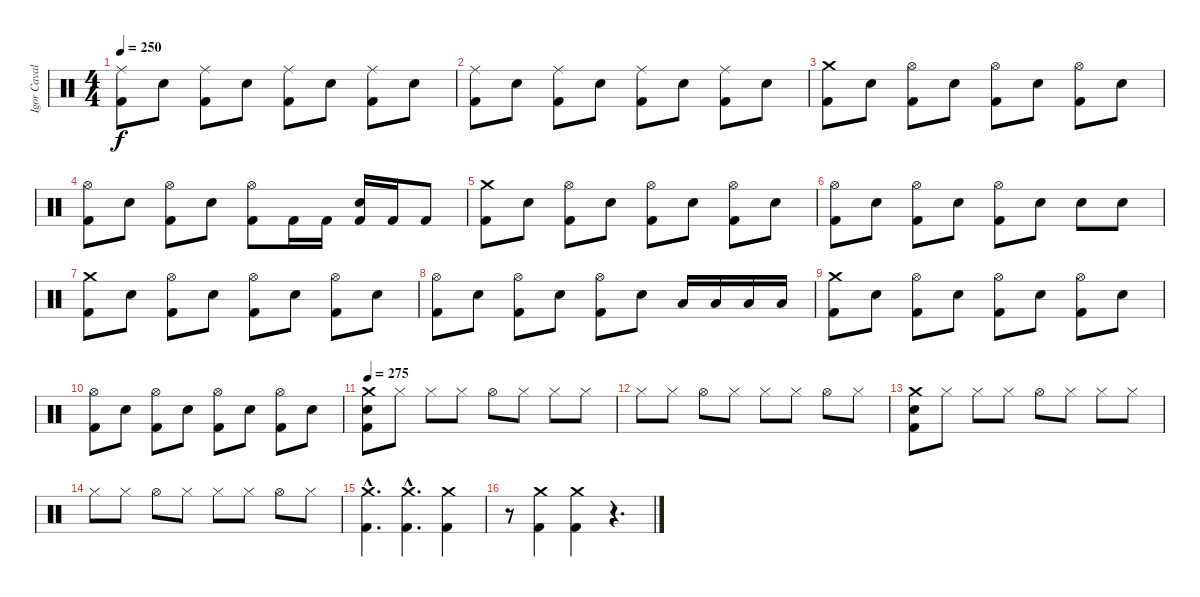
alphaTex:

\track ("Igor Cavalera" "Igor Caval") {instrument percussion}
\staff {score}
\articulation defaults
\ts (4 4)
\tempo 250
\clef neutral
\ks c
("Ride (middle)" "Kick (hit) 2").8{dy f} "Electric Snare (hit)".8 ("Ride (middle)" "Kick (hit) 2").8 "Electric Snare (hit)".8 ("Ride (middle)" "Kick (hit) 2").8 "Electric Snare (hit)".8 ("Ride (middle)" "Kick (hit) 2").8 "Electric Snare (hit)".8 |
("Ride (middle)" "Kick (hit) 2").8 "Electric Snare (hit)".8 ("Ride (middle)" "Kick (hit) 2").8 "Electric Snare (hit)".8 ("Ride (middle)" "Kick (hit) 2").8 "Electric Snare (hit)".8 ("Ride (middle)" "Kick (hit) 2").8 "Electric Snare (hit)".8 |
("Crash medium (hit)" "Kick (hit) 2").8 "Electric Snare (hit)".8 ("Hi-Hat (open)" "Kick (hit) 2").8 "Electric Snare (hit)".8 ("Hi-Hat (open)" "Kick (hit) 2").8 "Electric Snare (hit)".8 ("Hi-Hat (open)" "Kick (hit) 2").8 "Electric Snare (hit)".8 |
("Hi-Hat (open)" "Kick (hit) 2").8 "Electric Snare (hit)".8 ("Hi-Hat (open)" "Kick (hit) 2").8 "Electric Snare (hit)".8 ("Hi-Hat (open)" "Kick (hit) 2").8 "Kick (hit) 2".16 "Kick (hit) 2".16 ("Electric Snare (hit)" "Kick (hit) 2").16 "Kick (hit) 2".16 "Kick (hit) 2".8 |
("Crash medium (hit)" "Kick (hit) 2").8 "Electric Snare (hit)".8 ("Hi-Hat (open)" "Kick (hit) 2").8 "Electric Snare (hit)".8 ("Hi-Hat (open)" "Kick (hit) 2").8 "Electric Snare (hit)".8 ("Hi-Hat (open)" "Kick (hit) 2").8 "Electric Snare (hit)".8 |
("Hi-Hat (open)" "Kick (hit) 2").8 "Electric Snare (hit)".8 ("Hi-Hat (open)" "Kick (hit) 2").8 "Electric Snare (hit)".8 ("Hi-Hat (open)" "Kick (hit) 2").8 "Electric Snare (hit)".8 "Electric Snare (hit)".8 "Electric Snare (hit)".8 |
("Crash medium (hit)" "Kick (hit) 2").8 "Electric Snare (hit)".8 ("Hi-Hat (open)" "Kick (hit) 2").8 "Electric Snare (hit)".8 ("Hi-Hat (open)" "Kick (hit) 2").8 "Electric Snare (hit)".8 ("Hi-Hat (open)" "Kick (hit) 2").8 "Electric Snare (hit)".8 |
("Hi-Hat (open)" "Kick (hit) 2").8 "Electric Snare (hit)".8 ("Hi-Hat (open)" "Kick (hit) 2").8 "Electric Snare (hit)".8 ("Hi-Hat (open)" "Kick (hit) 2").8 "Electric Snare (hit)".8 "Low Tom (hit)".16 "Low Tom (hit)".16 "Low Tom (hit)".16 "Low Tom (hit)".16 |
("Crash medium (hit)" "Kick (hit) 2").8 "Electric Snare (hit)".8 ("Hi-Hat (open)" "Kick (hit) 2").8 "Electric Snare (hit)".8 ("Hi-Hat (open)" "Kick (hit) 2").8 "Electric Snare (hit)".8 ("Hi-Hat (open)" "Kick (hit) 2").8 "Electric Snare (hit)".8 |
("Hi-Hat (open)" "Kick (hit) 2").8 "Electric Snare (hit)".8 ("Hi-Hat (open)" "Kick (hit) 2").8 "Electric Snare (hit)".8 ("Hi-Hat (open)" "Kick (hit) 2").8 "Electric Snare (hit)".8 ("Hi-Hat (open)" "Kick (hit) 2").8 "Electric Snare (hit)".8 |
\tempo 275
("Kick (hit) 2" "Crash medium (hit)" "Electric Snare (hit)").8 "Hi-Hat (closed)".8 "Hi-Hat (closed)".8 "Hi-Hat (closed)".8 "Hi-Hat (open)".8 "Hi-Hat (closed)".8 "Hi-Hat (closed)".8 "Hi-Hat (closed)".8 |
"Hi-Hat (closed)".8 "Hi-Hat (closed)".8 "Hi-Hat (open)".8 "Hi-Hat (closed)".8 "Hi-Hat (closed)".8 "Hi-Hat (closed)".8 "Hi-Hat (open)".8 "Hi-Hat (closed)".8 |
("Kick (hit) 2" "Crash medium (hit)" "Electric Snare (hit)").8 "Hi-Hat (closed)".8 "Hi-Hat (closed)".8 "Hi-Hat (closed)".8 "Hi-Hat (open)".8 "Hi-Hat (closed)".8 "Hi-Hat (closed)".8 "Hi-Hat (closed)".8 |
"Hi-Hat (closed)".8 "Hi-Hat (closed)".8 "Hi-Hat (open)".8 "Hi-Hat (closed)".8 "Hi-Hat (closed)".8 "Hi-Hat (closed)".8 "Hi-Hat (open)".8 "Hi-Hat (closed)".8 |
("Crash medium (hit)"{hac} "Kick (hit) 2"{hac}).4{d} ("Crash medium (hit)"{hac} "Kick (hit) 2"{hac}).4{d} ("Crash medium (hit)" "Kick (hit) 2").4 |
r.8 ("Crash medium (hit)" "Kick (hit) 2").4 ("Crash medium (hit)" "Kick (hit) 2").4 r.4{d}
